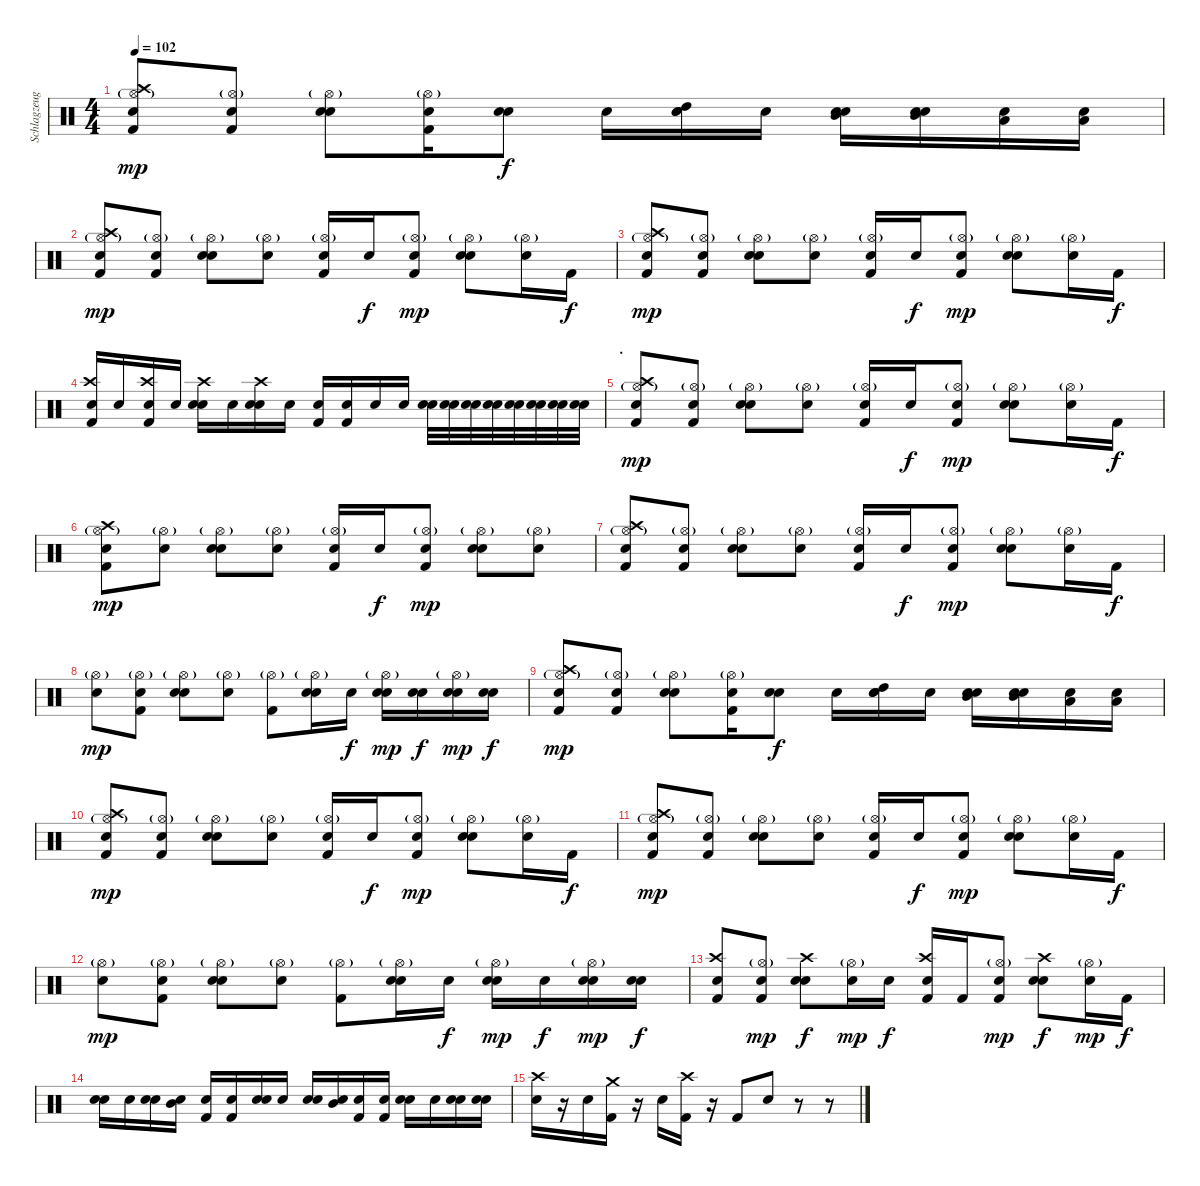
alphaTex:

\track ("Schlagzeug" "Schlagzeug") {instrument percussion}
\staff {score}
\articulation defaults
\ts (4 4)
\tempo 102
\clef neutral
\ks c
("Kick (hit) 2" "Crash high (hit)" "Hi-Hat (open)"{g} "Snare (hit)").8{dy mp} ("Kick (hit) 2" "Hi-Hat (open)"{g} "Snare (hit)").8 ("Snare (hit) 2" "Hi-Hat (open)"{g} "Snare (hit)").8 ("Kick (hit) 2" "Hi-Hat (open)"{g} "Snare (hit)").16 ("Snare (hit) 2" "Snare (hit)").8{dy f} "Snare (hit)".16 ("High Tom (hit)" "Snare (hit) 2" "Snare (hit)").16 "Snare (hit)".16 ("Mid Tom (hit)" "Snare (hit) 2" "Snare (hit)").16 ("Mid Tom (hit)" "Snare (hit) 2" "Snare (hit)").16 ("Low Tom (hit)" "Snare (hit)").16 ("Low Tom (hit)" "Snare (hit)").16 |
("Kick (hit) 2" "Crash high (hit)" "Hi-Hat (open)"{g} "Snare (hit)").8{dy mp} ("Kick (hit) 2" "Hi-Hat (open)"{g} "Snare (hit)").8 ("Snare (hit) 2" "Hi-Hat (open)"{g} "Snare (hit)").8 ("Hi-Hat (open)"{g} "Snare (hit)").8 ("Kick (hit) 2" "Hi-Hat (open)"{g} "Snare (hit)").16 "Snare (hit) 2".16{dy f} ("Kick (hit) 2" "Hi-Hat (open)"{g} "Snare (hit)").8{dy mp} ("Snare (hit) 2" "Hi-Hat (open)"{g} "Snare (hit)").8 ("Hi-Hat (open)"{g} "Snare (hit)").16 "Kick (hit) 2".16{dy f} |
("Kick (hit) 2" "Crash high (hit)" "Hi-Hat (open)"{g} "Snare (hit)").8{dy mp} ("Kick (hit) 2" "Hi-Hat (open)"{g} "Snare (hit)").8 ("Snare (hit) 2" "Hi-Hat (open)"{g} "Snare (hit)").8 ("Hi-Hat (open)"{g} "Snare (hit)").8 ("Kick (hit) 2" "Hi-Hat (open)"{g} "Snare (hit)").16 "Snare (hit) 2".16{dy f} ("Kick (hit) 2" "Hi-Hat (open)"{g} "Snare (hit)").8{dy mp} ("Snare (hit) 2" "Hi-Hat (open)"{g} "Snare (hit)").8 ("Hi-Hat (open)"{g} "Snare (hit)").16 "Kick (hit) 2".16{dy f} |
("Kick (hit) 2" "Crash high (hit)" "Snare (hit)").16 "Snare (hit)".16 ("Kick (hit) 2" "Crash high (hit)" "Snare (hit)").16 "Snare (hit)".16 ("Snare (hit) 2" "Crash high (hit)" "Snare (hit)").16 "Snare (hit)".16 ("Snare (hit) 2" "Crash high (hit)" "Snare (hit)").16 "Snare (hit)".16 ("Kick (hit) 2" "Snare (hit)").16 ("Kick (hit) 2" "Snare (hit)").16 "Snare (hit)".16 "Snare (hit)".16 ("Snare (hit) 2" "Snare (hit)").32 ("Snare (hit) 2" "Snare (hit)").32 ("Snare (hit) 2" "Snare (hit)").32 ("Snare (hit) 2" "Snare (hit)").32 ("Snare (hit) 2" "Snare (hit)").32 ("Snare (hit) 2" "Snare (hit)").32 ("Snare (hit) 2" "Snare (hit)").32 ("Snare (hit) 2" "Snare (hit)").32 |
\section ("" ".")
("Kick (hit) 2" "Crash high (hit)" "Hi-Hat (open)"{g} "Snare (hit)").8{dy mp} ("Kick (hit) 2" "Hi-Hat (open)"{g} "Snare (hit)").8 ("Snare (hit) 2" "Hi-Hat (open)"{g} "Snare (hit)").8 ("Hi-Hat (open)"{g} "Snare (hit)").8 ("Kick (hit) 2" "Hi-Hat (open)"{g} "Snare (hit)").16 "Snare (hit) 2".16{dy f} ("Kick (hit) 2" "Hi-Hat (open)"{g} "Snare (hit)").8{dy mp} ("Snare (hit) 2" "Hi-Hat (open)"{g} "Snare (hit)").8 ("Hi-Hat (open)"{g} "Snare (hit)").16 "Kick (hit) 2".16{dy f} |
("Kick (hit) 2" "Crash high (hit)" "Hi-Hat (open)"{g} "Snare (hit)").8{dy mp} ("Hi-Hat (open)"{g} "Snare (hit)").8 ("Snare (hit) 2" "Hi-Hat (open)"{g} "Snare (hit)").8 ("Hi-Hat (open)"{g} "Snare (hit)").8 ("Kick (hit) 2" "Hi-Hat (open)"{g} "Snare (hit)").16 "Snare (hit) 2".16{dy f} ("Kick (hit) 2" "Hi-Hat (open)"{g} "Snare (hit)").8{dy mp} ("Snare (hit) 2" "Hi-Hat (open)"{g} "Snare (hit)").8 ("Hi-Hat (open)"{g} "Snare (hit)").8 |
("Kick (hit) 2" "Crash high (hit)" "Hi-Hat (open)"{g} "Snare (hit)").8 ("Kick (hit) 2" "Hi-Hat (open)"{g} "Snare (hit)").8 ("Snare (hit) 2" "Hi-Hat (open)"{g} "Snare (hit)").8 ("Hi-Hat (open)"{g} "Snare (hit)").8 ("Kick (hit) 2" "Hi-Hat (open)"{g} "Snare (hit)").16 "Snare (hit) 2".16{dy f} ("Kick (hit) 2" "Hi-Hat (open)"{g} "Snare (hit)").8{dy mp} ("Snare (hit) 2" "Hi-Hat (open)"{g} "Snare (hit)").8 ("Hi-Hat (open)"{g} "Snare (hit)").16 "Kick (hit) 2".16{dy f} |
("Hi-Hat (open)"{g} "Snare (hit)").8{dy mp} ("Kick (hit) 2" "Hi-Hat (open)"{g} "Snare (hit)").8 ("Snare (hit) 2" "Hi-Hat (open)"{g} "Snare (hit)").8 ("Hi-Hat (open)"{g} "Snare (hit)").8 ("Kick (hit) 2" "Hi-Hat (open)"{g}).8 ("Snare (hit) 2" "Hi-Hat (open)"{g} "Snare (hit)").16 "Snare (hit)".16{dy f} ("Snare (hit) 2" "Hi-Hat (open)"{g} "Snare (hit)").16{dy mp} ("Snare (hit) 2" "Snare (hit)").16{dy f} ("Snare (hit) 2" "Hi-Hat (open)"{g} "Snare (hit)").16{dy mp} ("Snare (hit) 2" "Snare (hit)").16{dy f} |
("Kick (hit) 2" "Crash high (hit)" "Hi-Hat (open)"{g} "Snare (hit)").8{dy mp} ("Kick (hit) 2" "Hi-Hat (open)"{g} "Snare (hit)").8 ("Snare (hit) 2" "Hi-Hat (open)"{g} "Snare (hit)").8 ("Kick (hit) 2" "Hi-Hat (open)"{g} "Snare (hit)").16 ("Snare (hit) 2" "Snare (hit)").8{dy f} "Snare (hit)".16 ("High Tom (hit)" "Snare (hit) 2" "Snare (hit)").16 "Snare (hit)".16 ("Mid Tom (hit)" "Snare (hit) 2" "Snare (hit)").16 ("Mid Tom (hit)" "Snare (hit) 2" "Snare (hit)").16 ("Low Tom (hit)" "Snare (hit)").16 ("Low Tom (hit)" "Snare (hit)").16 |
("Kick (hit) 2" "Crash high (hit)" "Hi-Hat (open)"{g} "Snare (hit)").8{dy mp} ("Kick (hit) 2" "Hi-Hat (open)"{g} "Snare (hit)").8 ("Snare (hit) 2" "Hi-Hat (open)"{g} "Snare (hit)").8 ("Hi-Hat (open)"{g} "Snare (hit)").8 ("Kick (hit) 2" "Hi-Hat (open)"{g} "Snare (hit)").16 "Snare (hit) 2".16{dy f} ("Kick (hit) 2" "Hi-Hat (open)"{g} "Snare (hit)").8{dy mp} ("Snare (hit) 2" "Hi-Hat (open)"{g} "Snare (hit)").8 ("Hi-Hat (open)"{g} "Snare (hit)").16 "Kick (hit) 2".16{dy f} |
("Kick (hit) 2" "Crash high (hit)" "Hi-Hat (open)"{g} "Snare (hit)").8{dy mp} ("Kick (hit) 2" "Hi-Hat (open)"{g} "Snare (hit)").8 ("Snare (hit) 2" "Hi-Hat (open)"{g} "Snare (hit)").8 ("Hi-Hat (open)"{g} "Snare (hit)").8 ("Kick (hit) 2" "Hi-Hat (open)"{g} "Snare (hit)").16 "Snare (hit) 2".16{dy f} ("Kick (hit) 2" "Hi-Hat (open)"{g} "Snare (hit)").8{dy mp} ("Snare (hit) 2" "Hi-Hat (open)"{g} "Snare (hit)").8 ("Hi-Hat (open)"{g} "Snare (hit)").16 "Kick (hit) 2".16{dy f} |
("Hi-Hat (open)"{g} "Snare (hit)").8{dy mp} ("Kick (hit) 2" "Hi-Hat (open)"{g} "Snare (hit)").8 ("Snare (hit) 2" "Hi-Hat (open)"{g} "Snare (hit)").8 ("Hi-Hat (open)"{g} "Snare (hit)").8 ("Kick (hit) 2" "Hi-Hat (open)"{g}).8 ("Snare (hit) 2" "Hi-Hat (open)"{g} "Snare (hit)").16 "Snare (hit)".16{dy f} ("Snare (hit) 2" "Hi-Hat (open)"{g} "Snare (hit)").16{dy mp} "Snare (hit)".16{dy f} ("Snare (hit) 2" "Hi-Hat (open)"{g} "Snare (hit)").16{dy mp} ("Snare (hit) 2" "Snare (hit)").16{dy f} |
("Kick (hit) 2" "Crash high (hit)" "Snare (hit)").8 ("Kick (hit) 2" "Hi-Hat (open)"{g} "Snare (hit)").8{dy mp} ("Snare (hit) 2" "Crash high (hit)" "Snare (hit)").8{dy f} ("Hi-Hat (open)"{g} "Snare (hit)").16{dy mp} "Snare (hit) 2".16{dy f} ("Kick (hit) 2" "Crash high (hit)" "Snare (hit)").16 "Kick (hit) 2".16 ("Kick (hit) 2" "Hi-Hat (open)"{g} "Snare (hit)").8{dy mp} ("Snare (hit) 2" "Crash high (hit)" "Snare (hit)").8{dy f} ("Hi-Hat (open)"{g} "Snare (hit)").16{dy mp} "Kick (hit) 2".16{dy f} |
("Snare (hit) 2" "Snare (hit)").16 "Snare (hit)".16 ("Snare (hit) 2" "Snare (hit)").16 ("Mid Tom (hit)" "Snare (hit)").16 ("Kick (hit) 2" "Snare (hit)").16 ("Kick (hit) 2" "Snare (hit)").16 ("Snare (hit) 2" "Snare (hit)").16 "Snare (hit)".16 ("Snare (hit) 2" "Snare (hit)").16 ("Mid Tom (hit)" "Snare (hit)").16 ("Kick (hit) 2" "Snare (hit)").16 ("Kick (hit) 2" "Snare (hit)").16 ("Snare (hit) 2" "Snare (hit)").16 "Snare (hit)".16 ("Snare (hit) 2" "Snare (hit)").16 ("Snare (hit) 2" "Snare (hit)").16 |
("Snare (hit) 2" "Crash high (hit)").16 r.16 "Snare (hit) 2".16 ("Kick (hit) 2" "Crash medium (hit)").16 r.16 "Snare (hit) 2".16 ("Kick (hit) 2" "Crash high (hit)").16 r.16 "Kick (hit) 2".8 "Snare (hit) 2".8 r.8 r.8
